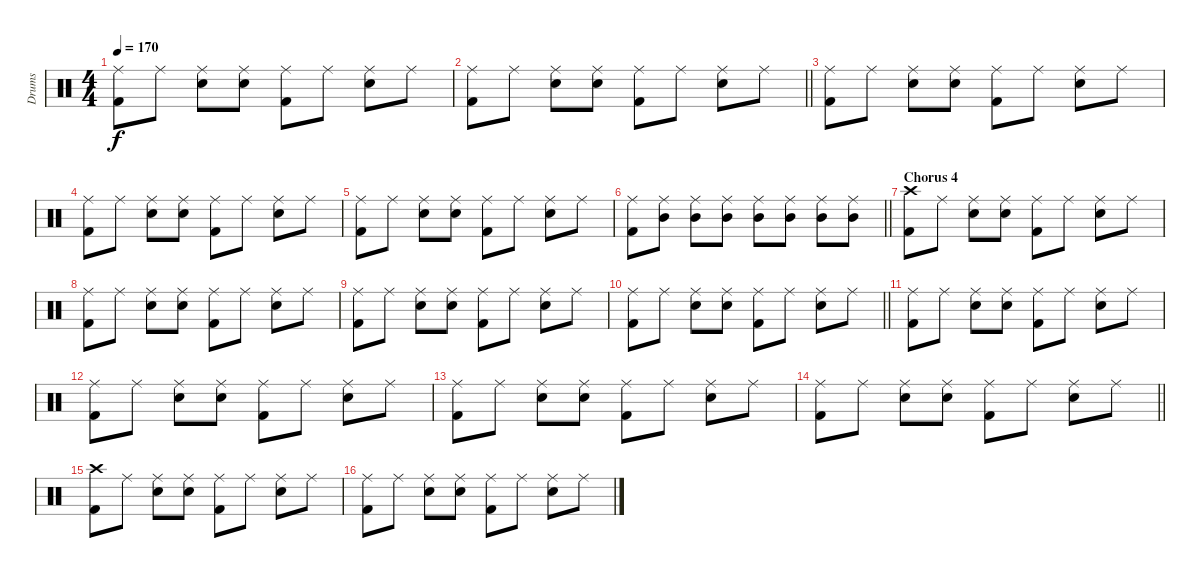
\track ("Drums" "Drums") {instrument percussion}
\staff {score}
\articulation defaults
\ts (4 4)
\tempo 170
\clef neutral
\ks c
("Ride (middle)" "Kick (hit) 2").8{dy f} "Ride (middle)".8 ("Ride (middle)" "Snare (hit) 2").8 ("Ride (middle)" "Snare (hit) 2").8 ("Ride (middle)" "Kick (hit) 2").8 "Ride (middle)".8 ("Ride (middle)" "Snare (hit) 2").8 "Ride (middle)".8 |
\barLineRight lightlight
("Ride (middle)" "Kick (hit) 2").8 "Ride (middle)".8 ("Ride (middle)" "Snare (hit) 2").8 ("Ride (middle)" "Snare (hit) 2").8 ("Ride (middle)" "Kick (hit) 2").8 "Ride (middle)".8 ("Ride (middle)" "Snare (hit) 2").8 "Ride (middle)".8 |
("Ride (middle)" "Kick (hit) 2").8 "Ride (middle)".8 ("Ride (middle)" "Snare (hit) 2").8 ("Ride (middle)" "Snare (hit) 2").8 ("Ride (middle)" "Kick (hit) 2").8 "Ride (middle)".8 ("Ride (middle)" "Snare (hit) 2").8 "Ride (middle)".8 |
("Ride (middle)" "Kick (hit) 2").8 "Ride (middle)".8 ("Ride (middle)" "Snare (hit) 2").8 ("Ride (middle)" "Snare (hit) 2").8 ("Ride (middle)" "Kick (hit) 2").8 "Ride (middle)".8 ("Ride (middle)" "Snare (hit) 2").8 "Ride (middle)".8 |
("Ride (middle)" "Kick (hit) 2").8 "Ride (middle)".8 ("Ride (middle)" "Snare (hit) 2").8 ("Ride (middle)" "Snare (hit) 2").8 ("Ride (middle)" "Kick (hit) 2").8 "Ride (middle)".8 ("Ride (middle)" "Snare (hit) 2").8 "Ride (middle)".8 |
\barLineRight lightlight
("Ride (middle)" "Kick (hit) 2").8 ("Ride (middle)" "Mid Tom (hit)").8 ("Ride (middle)" "Mid Tom (hit)").8 ("Ride (middle)" "Mid Tom (hit)").8 ("Ride (middle)" "Mid Tom (hit)").8 ("Ride (middle)" "Mid Tom (hit)").8 ("Ride (middle)" "Mid Tom (hit)").8 ("Ride (middle)" "Mid Tom (hit)").8 |
\section ("" "Chorus 4")
("Crash high (hit)" "Kick (hit) 2").8 "Ride (middle)".8 ("Ride (middle)" "Snare (hit) 2").8 ("Ride (middle)" "Snare (hit) 2").8 ("Ride (middle)" "Kick (hit) 2").8 "Ride (middle)".8 ("Ride (middle)" "Snare (hit) 2").8 "Ride (middle)".8 |
("Ride (middle)" "Kick (hit) 2").8 "Ride (middle)".8 ("Ride (middle)" "Snare (hit) 2").8 ("Ride (middle)" "Snare (hit) 2").8 ("Ride (middle)" "Kick (hit) 2").8 "Ride (middle)".8 ("Ride (middle)" "Snare (hit) 2").8 "Ride (middle)".8 |
("Ride (middle)" "Kick (hit) 2").8 "Ride (middle)".8 ("Ride (middle)" "Snare (hit) 2").8 ("Ride (middle)" "Snare (hit) 2").8 ("Ride (middle)" "Kick (hit) 2").8 "Ride (middle)".8 ("Ride (middle)" "Snare (hit) 2").8 "Ride (middle)".8 |
\barLineRight lightlight
("Ride (middle)" "Kick (hit) 2").8 "Ride (middle)".8 ("Ride (middle)" "Snare (hit) 2").8 ("Ride (middle)" "Snare (hit) 2").8 ("Ride (middle)" "Kick (hit) 2").8 "Ride (middle)".8 ("Ride (middle)" "Snare (hit) 2").8 "Ride (middle)".8 |
("Ride (middle)" "Kick (hit) 2").8 "Ride (middle)".8 ("Ride (middle)" "Snare (hit) 2").8 ("Ride (middle)" "Snare (hit) 2").8 ("Ride (middle)" "Kick (hit) 2").8 "Ride (middle)".8 ("Ride (middle)" "Snare (hit) 2").8 "Ride (middle)".8 |
("Ride (middle)" "Kick (hit) 2").8 "Ride (middle)".8 ("Ride (middle)" "Snare (hit) 2").8 ("Ride (middle)" "Snare (hit) 2").8 ("Ride (middle)" "Kick (hit) 2").8 "Ride (middle)".8 ("Ride (middle)" "Snare (hit) 2").8 "Ride (middle)".8 |
("Ride (middle)" "Kick (hit) 2").8 "Ride (middle)".8 ("Ride (middle)" "Snare (hit) 2").8 ("Ride (middle)" "Snare (hit) 2").8 ("Ride (middle)" "Kick (hit) 2").8 "Ride (middle)".8 ("Ride (middle)" "Snare (hit) 2").8 "Ride (middle)".8 |
\barLineRight lightlight
("Ride (middle)" "Kick (hit) 2").8 "Ride (middle)".8 ("Ride (middle)" "Snare (hit) 2").8 ("Ride (middle)" "Snare (hit) 2").8 ("Ride (middle)" "Kick (hit) 2").8 "Ride (middle)".8 ("Ride (middle)" "Snare (hit) 2").8 "Ride (middle)".8 |
("Crash high (hit)" "Kick (hit) 2").8 "Ride (middle)".8 ("Ride (middle)" "Snare (hit) 2").8 ("Ride (middle)" "Snare (hit) 2").8 ("Ride (middle)" "Kick (hit) 2").8 "Ride (middle)".8 ("Ride (middle)" "Snare (hit) 2").8 "Ride (middle)".8 |
("Ride (middle)" "Kick (hit) 2").8 "Ride (middle)".8 ("Ride (middle)" "Snare (hit) 2").8 ("Ride (middle)" "Snare (hit) 2").8 ("Ride (middle)" "Kick (hit) 2").8 "Ride (middle)".8 ("Ride (middle)" "Snare (hit) 2").8 "Ride (middle)".8
